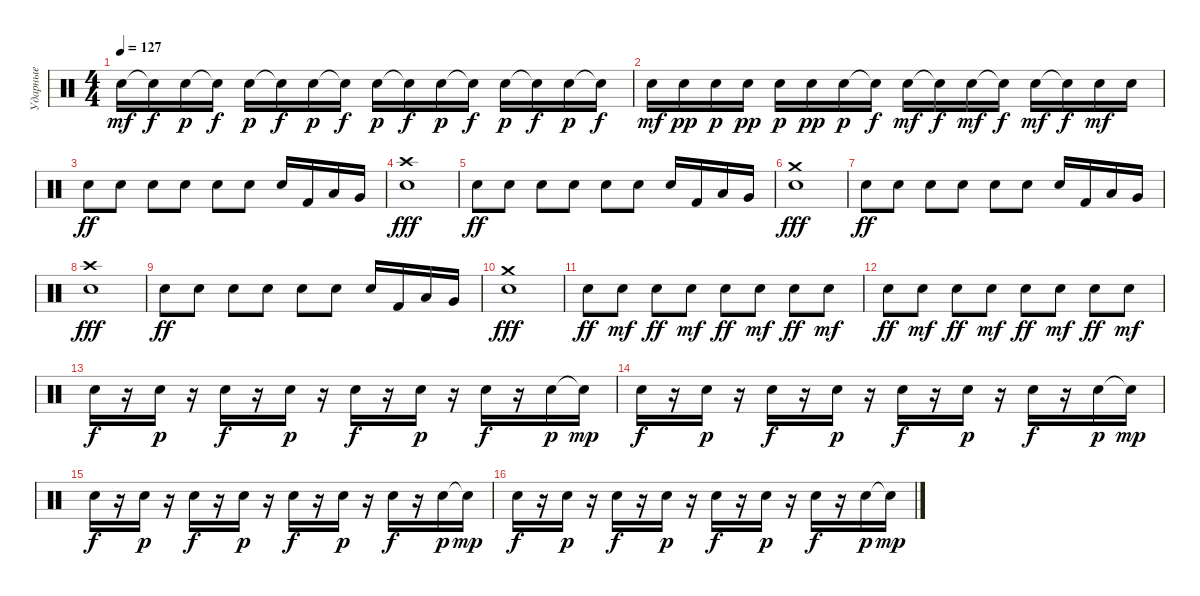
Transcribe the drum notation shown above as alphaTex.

\track ("Ударные" "Ударные") {instrument percussion}
\staff {score}
\articulation defaults
\ts (4 4)
\tempo 127
\clef neutral
\ks c "Electric Snare (hit)".16{dy mf} "Snare (hit)"{t}.16{dy f} "Electric Snare (hit)".16{dy p} "Electric Snare (hit)"{t}.16{dy f} "Electric Snare (hit)".16{dy p} "Snare (hit)"{t}.16{dy f} "Electric Snare (hit)".16{dy p} "Snare (hit)"{t}.16{dy f} "Electric Snare (hit)".16{dy p} "Snare (hit)"{t}.16{dy f} "Electric Snare (hit)".16{dy p} "Snare (hit)"{t}.16{dy f} "Electric Snare (hit)".16{dy p} "Snare (hit)"{t}.16{dy f} "Electric Snare (hit)".16{dy p} "Electric Snare (hit)"{t}.16{dy f}
|
"Electric Snare (hit)".16{dy mf} "Electric Snare (hit)".16{dy pp} "Electric Snare (hit)".16{dy p} "Electric Snare (hit)".16{dy pp} "Electric Snare (hit)".16{dy p} "Electric Snare (hit)".16{dy pp} "Electric Snare (hit)".16{dy p} "Snare (hit)"{t}.16{dy f} "Electric Snare (hit)".16{dy mf} "Snare (hit)"{t}.16{dy f} "Electric Snare (hit)".16{dy mf} "Snare (hit)"{t}.16{dy f} "Electric Snare (hit)".16{dy mf} "Snare (hit)"{t}.16{dy f} "Electric Snare (hit)".16{dy mf} "Electric Snare (hit)".16 |
"Electric Snare (hit)".8{dy ff} "Electric Snare (hit)".8 "Electric Snare (hit)".8 "Electric Snare (hit)".8 "Electric Snare (hit)".8 "Electric Snare (hit)".8 "Electric Snare (hit)".16 "Kick (hit) 2".16 "Low Tom (hit)".16 "Very Low Tom (hit)".16 |
("Crash high (hit)" "Electric Snare (hit)").1{dy fff} |
"Electric Snare (hit)".8{dy ff} "Electric Snare (hit)".8 "Electric Snare (hit)".8 "Electric Snare (hit)".8 "Electric Snare (hit)".8 "Electric Snare (hit)".8 "Electric Snare (hit)".16 "Kick (hit) 2".16 "Low Tom (hit)".16 "Very Low Tom (hit)".16 |
("Crash medium (hit)" "Electric Snare (hit)").1{dy fff} |
"Electric Snare (hit)".8{dy ff} "Electric Snare (hit)".8 "Electric Snare (hit)".8 "Electric Snare (hit)".8 "Electric Snare (hit)".8 "Electric Snare (hit)".8 "Electric Snare (hit)".16 "Kick (hit) 2".16 "Low Tom (hit)".16 "Very Low Tom (hit)".16 |
("Crash high (hit)" "Electric Snare (hit)").1{dy fff} |
"Electric Snare (hit)".8{dy ff} "Electric Snare (hit)".8 "Electric Snare (hit)".8 "Electric Snare (hit)".8 "Electric Snare (hit)".8 "Electric Snare (hit)".8 "Electric Snare (hit)".16 "Kick (hit) 2".16 "Low Tom (hit)".16 "Very Low Tom (hit)".16 |
("Crash medium (hit)" "Electric Snare (hit)").1{dy fff} |
"Electric Snare (hit)".8{dy ff} "Electric Snare (hit)".8{dy mf} "Electric Snare (hit)".8{dy ff} "Electric Snare (hit)".8{dy mf} "Electric Snare (hit)".8{dy ff} "Electric Snare (hit)".8{dy mf} "Electric Snare (hit)".8{dy ff} "Electric Snare (hit)".8{dy mf} |
"Electric Snare (hit)".8{dy ff} "Electric Snare (hit)".8{dy mf} "Electric Snare (hit)".8{dy ff} "Electric Snare (hit)".8{dy mf} "Electric Snare (hit)".8{dy ff} "Electric Snare (hit)".8{dy mf} "Electric Snare (hit)".8{dy ff} "Electric Snare (hit)".8{dy mf} |
"Electric Snare (hit)".16{dy f} r.16 "Electric Snare (hit)".16{dy p} r.16 "Electric Snare (hit)".16{dy f} r.16 "Electric Snare (hit)".16{dy p} r.16 "Electric Snare (hit)".16{dy f} r.16 "Electric Snare (hit)".16{dy p} r.16 "Electric Snare (hit)".16{dy f} r.16 "Electric Snare (hit)".16{dy p} "Electric Snare (hit)"{t}.16{dy mp} |
"Electric Snare (hit)".16{dy f} r.16 "Electric Snare (hit)".16{dy p} r.16 "Electric Snare (hit)".16{dy f} r.16 "Electric Snare (hit)".16{dy p} r.16 "Electric Snare (hit)".16{dy f} r.16 "Electric Snare (hit)".16{dy p} r.16 "Electric Snare (hit)".16{dy f} r.16 "Electric Snare (hit)".16{dy p} "Electric Snare (hit)"{t}.16{dy mp} |
"Electric Snare (hit)".16{dy f} r.16 "Electric Snare (hit)".16{dy p} r.16 "Electric Snare (hit)".16{dy f} r.16 "Electric Snare (hit)".16{dy p} r.16 "Electric Snare (hit)".16{dy f} r.16 "Electric Snare (hit)".16{dy p} r.16 "Electric Snare (hit)".16{dy f} r.16 "Electric Snare (hit)".16{dy p} "Electric Snare (hit)"{t}.16{dy mp} |
"Electric Snare (hit)".16{dy f} r.16 "Electric Snare (hit)".16{dy p} r.16 "Electric Snare (hit)".16{dy f} r.16 "Electric Snare (hit)".16{dy p} r.16 "Electric Snare (hit)".16{dy f} r.16 "Electric Snare (hit)".16{dy p} r.16 "Electric Snare (hit)".16{dy f} r.16 "Electric Snare (hit)".16{dy p} "Electric Snare (hit)"{t}.16{dy mp}
